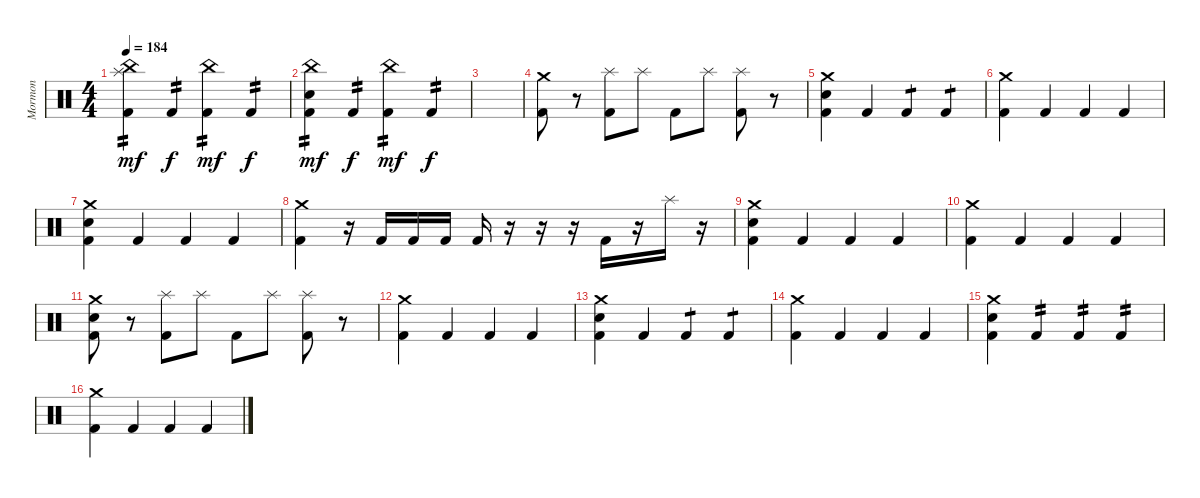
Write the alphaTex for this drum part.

\track ("Mormon" "Mormon") {solo instrument percussion}
\staff {score}
\articulation defaults
\ts (4 4)
\tempo 184
\clef neutral
\ks c
("China (hit)" "Splash (hit)" "Kick (hit) 2").4{tp 2 dy mf} "Kick (hit) 2".4{tp 2 dy f} ("China (hit)" "Kick (hit) 2").4{tp 2 dy mf} "Kick (hit) 2".4{tp 2 dy f} |
("China (hit)" "Snare (hit) 2" "Kick (hit) 2").4{tp 2 dy mf} "Kick (hit) 2".4{tp 2 dy f} ("China (hit)" "Kick (hit) 2").4{tp 2 dy mf} "Kick (hit) 2".4{tp 2 dy f} |
|
("Crash medium (hit)" "Kick (hit) 2").8 r.8 ("Splash (hit)" "Kick (hit) 2").8 "Splash (hit)".8 "Kick (hit) 2".8 "Splash (hit)".8 ("Splash (hit)" "Kick (hit) 2").8 r.8 |
("Crash medium (hit)" "Snare (hit) 2" "Kick (hit) 2").4 "Kick (hit) 2".4 "Kick (hit) 2".4{tp 1} "Kick (hit) 2".4{tp 1} |
("Crash medium (hit)" "Kick (hit) 2").4 "Kick (hit) 2".4 "Kick (hit) 2".4 "Kick (hit) 2".4 |
("Crash medium (hit)" "Snare (hit) 2" "Kick (hit) 2").4 "Kick (hit) 2".4 "Kick (hit) 2".4 "Kick (hit) 2".4 |
("Crash medium (hit)" "Kick (hit) 2").4 r.16 "Kick (hit) 2".16 "Kick (hit) 2".16 "Kick (hit) 2".16 "Kick (hit) 2".16 r.16 r.16 r.16 "Kick (hit) 2".16 r.16 "Splash (hit)".16 r.16 |
("Crash medium (hit)" "Snare (hit) 2" "Kick (hit) 2").4 "Kick (hit) 2".4 "Kick (hit) 2".4 "Kick (hit) 2".4 |
("Crash medium (hit)" "Kick (hit) 2").4 "Kick (hit) 2".4 "Kick (hit) 2".4 "Kick (hit) 2".4 |
("Crash medium (hit)" "Snare (hit) 2" "Kick (hit) 2").8 r.8 ("Splash (hit)" "Kick (hit) 2").8 "Splash (hit)".8 "Kick (hit) 2".8 "Splash (hit)".8 ("Splash (hit)" "Kick (hit) 2").8 r.8 |
("Crash medium (hit)" "Kick (hit) 2").4 "Kick (hit) 2".4 "Kick (hit) 2".4 "Kick (hit) 2".4 |
("Crash medium (hit)" "Snare (hit) 2" "Kick (hit) 2").4 "Kick (hit) 2".4 "Kick (hit) 2".4{tp 1} "Kick (hit) 2".4{tp 1} |
("Crash medium (hit)" "Kick (hit) 2").4 "Kick (hit) 2".4 "Kick (hit) 2".4 "Kick (hit) 2".4 |
("Crash medium (hit)" "Snare (hit) 2" "Kick (hit) 2").4 "Kick (hit) 2".4{tp 2} "Kick (hit) 2".4{tp 2} "Kick (hit) 2".4{tp 2} |
("Crash medium (hit)" "Kick (hit) 2").4 "Kick (hit) 2".4 "Kick (hit) 2".4 "Kick (hit) 2".4
